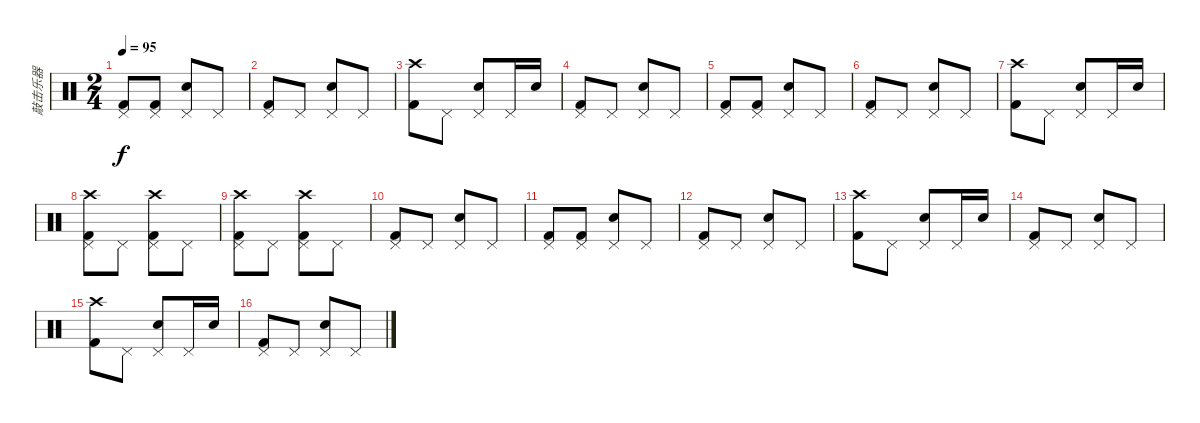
\track ("敲击乐器" "敲击乐器") {instrument percussion}
\staff {score}
\articulation defaults
\ts (2 4)
\tempo 95
\clef neutral
\ks c
("Pedal Hi-Hat (hit)" "Kick (hit) 2").8{dy f} ("Pedal Hi-Hat (hit)" "Kick (hit) 2").8 ("Pedal Hi-Hat (hit)" "Electric Snare (hit)").8 "Pedal Hi-Hat (hit)".8 |
("Pedal Hi-Hat (hit)" "Kick (hit) 2").8 "Pedal Hi-Hat (hit)".8 ("Pedal Hi-Hat (hit)" "Electric Snare (hit)").8 "Pedal Hi-Hat (hit)".8 |
("Crash high (hit)" "Kick (hit) 2").8 "Pedal Hi-Hat (hit)".8 ("Pedal Hi-Hat (hit)" "Electric Snare (hit)").8 "Pedal Hi-Hat (hit)".16 "Electric Snare (hit)".16 |
("Pedal Hi-Hat (hit)" "Kick (hit) 2").8 "Pedal Hi-Hat (hit)".8 ("Pedal Hi-Hat (hit)" "Electric Snare (hit)").8 "Pedal Hi-Hat (hit)".8 |
("Pedal Hi-Hat (hit)" "Kick (hit) 2").8 ("Pedal Hi-Hat (hit)" "Kick (hit) 2").8 ("Pedal Hi-Hat (hit)" "Electric Snare (hit)").8 "Pedal Hi-Hat (hit)".8 |
("Pedal Hi-Hat (hit)" "Kick (hit) 2").8 "Pedal Hi-Hat (hit)".8 ("Pedal Hi-Hat (hit)" "Electric Snare (hit)").8 "Pedal Hi-Hat (hit)".8 |
("Crash high (hit)" "Kick (hit) 2").8 "Pedal Hi-Hat (hit)".8 ("Pedal Hi-Hat (hit)" "Electric Snare (hit)").8 "Pedal Hi-Hat (hit)".16 "Electric Snare (hit)".16 |
("Pedal Hi-Hat (hit)" "Crash high (hit)" "Kick (hit) 2").8 "Pedal Hi-Hat (hit)".8 ("Pedal Hi-Hat (hit)" "Crash high (hit)" "Kick (hit) 2").8 "Pedal Hi-Hat (hit)".8 |
("Pedal Hi-Hat (hit)" "Crash high (hit)" "Kick (hit) 2").8 "Pedal Hi-Hat (hit)".8 ("Pedal Hi-Hat (hit)" "Crash high (hit)" "Kick (hit) 2").8 "Pedal Hi-Hat (hit)".8 |
("Pedal Hi-Hat (hit)" "Kick (hit) 2").8 "Pedal Hi-Hat (hit)".8 ("Pedal Hi-Hat (hit)" "Electric Snare (hit)").8 "Pedal Hi-Hat (hit)".8 |
("Pedal Hi-Hat (hit)" "Kick (hit) 2").8 ("Pedal Hi-Hat (hit)" "Kick (hit) 2").8 ("Pedal Hi-Hat (hit)" "Electric Snare (hit)").8 "Pedal Hi-Hat (hit)".8 |
("Pedal Hi-Hat (hit)" "Kick (hit) 2").8 "Pedal Hi-Hat (hit)".8 ("Pedal Hi-Hat (hit)" "Electric Snare (hit)").8 "Pedal Hi-Hat (hit)".8 |
("Crash high (hit)" "Kick (hit) 2").8 "Pedal Hi-Hat (hit)".8 ("Pedal Hi-Hat (hit)" "Electric Snare (hit)").8 "Pedal Hi-Hat (hit)".16 "Electric Snare (hit)".16 |
("Pedal Hi-Hat (hit)" "Kick (hit) 2").8 "Pedal Hi-Hat (hit)".8 ("Pedal Hi-Hat (hit)" "Electric Snare (hit)").8 "Pedal Hi-Hat (hit)".8 |
("Crash high (hit)" "Kick (hit) 2").8 "Pedal Hi-Hat (hit)".8 ("Pedal Hi-Hat (hit)" "Electric Snare (hit)").8 "Pedal Hi-Hat (hit)".16 "Electric Snare (hit)".16 |
("Pedal Hi-Hat (hit)" "Kick (hit) 2").8 "Pedal Hi-Hat (hit)".8 ("Pedal Hi-Hat (hit)" "Electric Snare (hit)").8 "Pedal Hi-Hat (hit)".8
